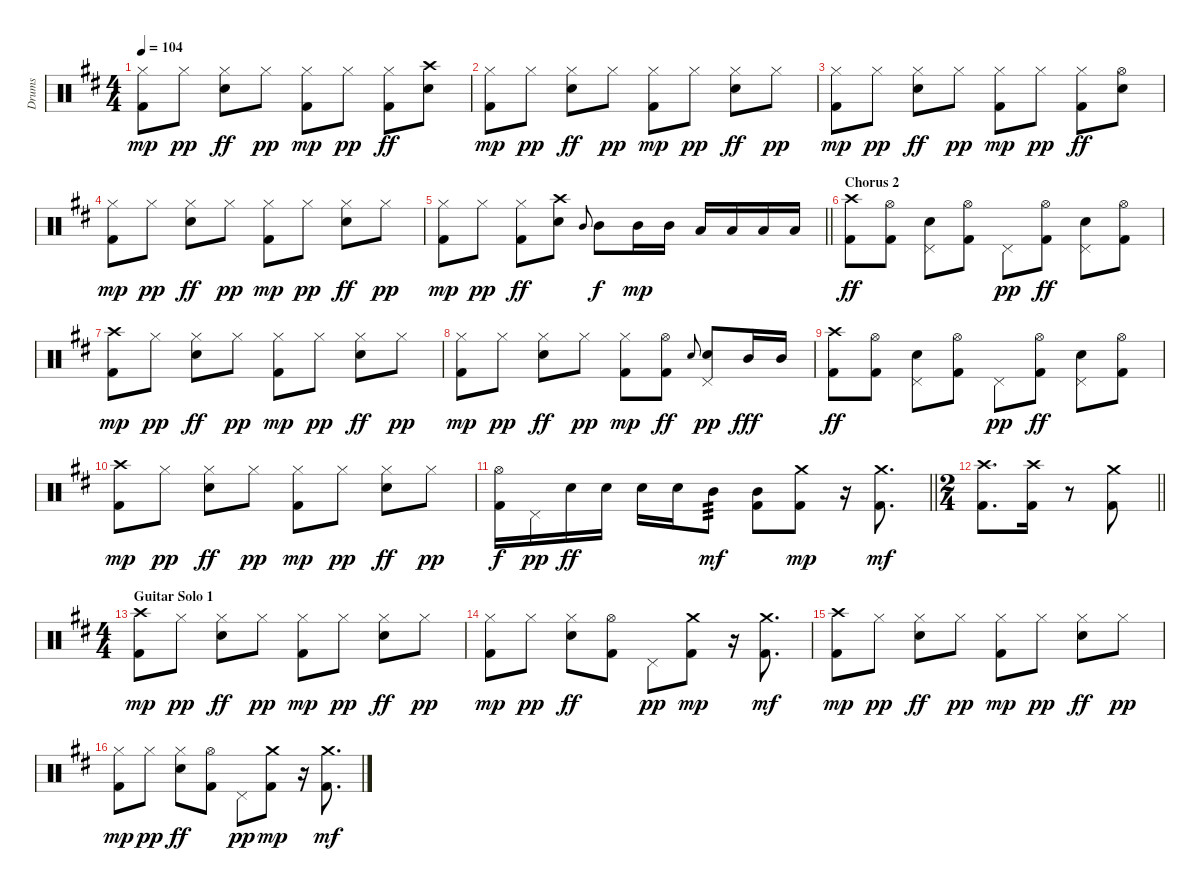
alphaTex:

\track ("Drums" "Drums") {instrument percussion}
\staff {score}
\articulation defaults
\ts (4 4)
\tempo 104
\clef neutral
\ks bminor
("Hi-Hat (closed)" "Kick (hit) 2").8{dy mp} "Hi-Hat (closed)".8{dy pp} ("Hi-Hat (closed)" "Electric Snare (hit)").8{dy ff} "Hi-Hat (closed)".8{dy pp} ("Hi-Hat (closed)" "Kick (hit) 2").8{dy mp} "Hi-Hat (closed)".8{dy pp} ("Hi-Hat (closed)" "Kick (hit) 2").8{dy ff} ("Crash high (hit)" "Electric Snare (hit)").8 |
("Hi-Hat (closed)" "Kick (hit) 2").8{dy mp} "Hi-Hat (closed)".8{dy pp} ("Hi-Hat (closed)" "Electric Snare (hit)").8{dy ff} "Hi-Hat (closed)".8{dy pp} ("Hi-Hat (closed)" "Kick (hit) 2").8{dy mp} "Hi-Hat (closed)".8{dy pp} ("Hi-Hat (closed)" "Electric Snare (hit)").8{dy ff} "Hi-Hat (closed)".8{dy pp} |
("Hi-Hat (closed)" "Kick (hit) 2").8{dy mp} "Hi-Hat (closed)".8{dy pp} ("Hi-Hat (closed)" "Electric Snare (hit)").8{dy ff} "Hi-Hat (closed)".8{dy pp} ("Hi-Hat (closed)" "Kick (hit) 2").8{dy mp} "Hi-Hat (closed)".8{dy pp} ("Hi-Hat (closed)" "Kick (hit) 2").8{dy ff} ("Hi-Hat (open)" "Electric Snare (hit)").8 |
("Hi-Hat (closed)" "Kick (hit) 2").8{dy mp} "Hi-Hat (closed)".8{dy pp} ("Hi-Hat (closed)" "Electric Snare (hit)").8{dy ff} "Hi-Hat (closed)".8{dy pp} ("Hi-Hat (closed)" "Kick (hit) 2").8{dy mp} "Hi-Hat (closed)".8{dy pp} ("Hi-Hat (closed)" "Electric Snare (hit)").8{dy ff} "Hi-Hat (closed)".8{dy pp} |
\barLineRight lightlight
("Hi-Hat (closed)" "Kick (hit) 2").8{dy mp} "Hi-Hat (closed)".8{dy pp} ("Hi-Hat (closed)" "Kick (hit) 2").8{dy ff} ("Crash high (hit)" "Electric Snare (hit)").8 "Mid Tom (hit)".8{gr onbeat} "Mid Tom (hit)".8{dy f} "Mid Tom (hit)".16{dy mp} "Mid Tom (hit)".16 "Low Tom (hit)".16 "Low Tom (hit)".16 "Low Tom (hit)".16 "Low Tom (hit)".16 |
\section ("" "Chorus 2")
("Crash high (hit)" "Kick (hit) 2").8{dy ff} ("Hi-Hat (open)" "Kick (hit) 2").8 ("Pedal Hi-Hat (hit)" "Electric Snare (hit)").8 ("Hi-Hat (open)" "Kick (hit) 2").8 "Pedal Hi-Hat (hit)".8{dy pp} ("Hi-Hat (open)" "Kick (hit) 2").8{dy ff} ("Pedal Hi-Hat (hit)" "Electric Snare (hit)").8 ("Hi-Hat (open)" "Kick (hit) 2").8 |
("Crash high (hit)" "Kick (hit) 2").8{dy mp} "Hi-Hat (closed)".8{dy pp} ("Hi-Hat (closed)" "Electric Snare (hit)").8{dy ff} "Hi-Hat (closed)".8{dy pp} ("Hi-Hat (closed)" "Kick (hit) 2").8{dy mp} "Hi-Hat (closed)".8{dy pp} ("Hi-Hat (closed)" "Electric Snare (hit)").8{dy ff} "Hi-Hat (closed)".8{dy pp} |
("Hi-Hat (closed)" "Kick (hit) 2").8{dy mp} "Hi-Hat (closed)".8{dy pp} ("Hi-Hat (closed)" "Electric Snare (hit)").8{dy ff} "Hi-Hat (closed)".8{dy pp} ("Hi-Hat (closed)" "Kick (hit) 2").8{dy mp} ("Hi-Hat (open)" "Kick (hit) 2").8{dy ff} "Electric Snare (hit)".8{gr onbeat} ("Electric Snare (hit)" "Pedal Hi-Hat (hit)").8{dy pp} "Mid Tom (hit)".16{dy fff} "Mid Tom (hit)".16 |
("Crash high (hit)" "Kick (hit) 2").8{dy ff} ("Hi-Hat (open)" "Kick (hit) 2").8 ("Pedal Hi-Hat (hit)" "Electric Snare (hit)").8 ("Hi-Hat (open)" "Kick (hit) 2").8 "Pedal Hi-Hat (hit)".8{dy pp} ("Hi-Hat (open)" "Kick (hit) 2").8{dy ff} ("Pedal Hi-Hat (hit)" "Electric Snare (hit)").8 ("Hi-Hat (open)" "Kick (hit) 2").8 |
("Crash high (hit)" "Kick (hit) 2").8{dy mp} "Hi-Hat (closed)".8{dy pp} ("Hi-Hat (closed)" "Electric Snare (hit)").8{dy ff} "Hi-Hat (closed)".8{dy pp} ("Hi-Hat (closed)" "Kick (hit) 2").8{dy mp} "Hi-Hat (closed)".8{dy pp} ("Hi-Hat (closed)" "Electric Snare (hit)").8{dy ff} "Hi-Hat (closed)".8{dy pp} |
\barLineRight lightlight
("Hi-Hat (open)" "Kick (hit) 2").16{dy f} "Pedal Hi-Hat (hit)".16{dy pp} "Electric Snare (hit)".16{dy ff} "Electric Snare (hit)".16 "Electric Snare (hit)".16 "Electric Snare (hit)".16 "Mid Tom (hit)".8{tp 3 dy mf} ("Kick (hit) 2" "Mid Tom (hit)").8 ("Kick (hit) 2" "Crash medium (hit)").8{dy mp} r.16 ("Kick (hit) 2" "Crash medium (hit)").8{d dy mf} |
\ts (2 4)
\barLineRight lightlight
("Kick (hit) 2" "Crash high (hit)").8{d} ("Kick (hit) 2" "Crash high (hit)").16 r.8 ("Kick (hit) 2" "Crash medium (hit)").8 |
\ts (4 4)
\section ("" "Guitar Solo 1")
("Crash high (hit)" "Kick (hit) 2").8{dy mp} "Hi-Hat (closed)".8{dy pp} ("Hi-Hat (closed)" "Electric Snare (hit)").8{dy ff} "Hi-Hat (closed)".8{dy pp} ("Hi-Hat (closed)" "Kick (hit) 2").8{dy mp} "Hi-Hat (closed)".8{dy pp} ("Hi-Hat (closed)" "Electric Snare (hit)").8{dy ff} "Hi-Hat (closed)".8{dy pp} |
("Hi-Hat (closed)" "Kick (hit) 2").8{dy mp} "Hi-Hat (closed)".8{dy pp} ("Hi-Hat (closed)" "Electric Snare (hit)").8{dy ff} ("Hi-Hat (open)" "Kick (hit) 2").8 "Pedal Hi-Hat (hit)".8{dy pp} ("Kick (hit) 2" "Crash medium (hit)").8{dy mp} r.16 ("Kick (hit) 2" "Crash medium (hit)").8{d dy mf} |
("Crash high (hit)" "Kick (hit) 2").8{dy mp} "Hi-Hat (closed)".8{dy pp} ("Hi-Hat (closed)" "Electric Snare (hit)").8{dy ff} "Hi-Hat (closed)".8{dy pp} ("Hi-Hat (closed)" "Kick (hit) 2").8{dy mp} "Hi-Hat (closed)".8{dy pp} ("Hi-Hat (closed)" "Electric Snare (hit)").8{dy ff} "Hi-Hat (closed)".8{dy pp} |
("Hi-Hat (closed)" "Kick (hit) 2").8{dy mp} "Hi-Hat (closed)".8{dy pp} ("Hi-Hat (closed)" "Electric Snare (hit)").8{dy ff} ("Hi-Hat (open)" "Kick (hit) 2").8 "Pedal Hi-Hat (hit)".8{dy pp} ("Kick (hit) 2" "Crash medium (hit)").8{dy mp} r.16 ("Kick (hit) 2" "Crash medium (hit)").8{d dy mf}
